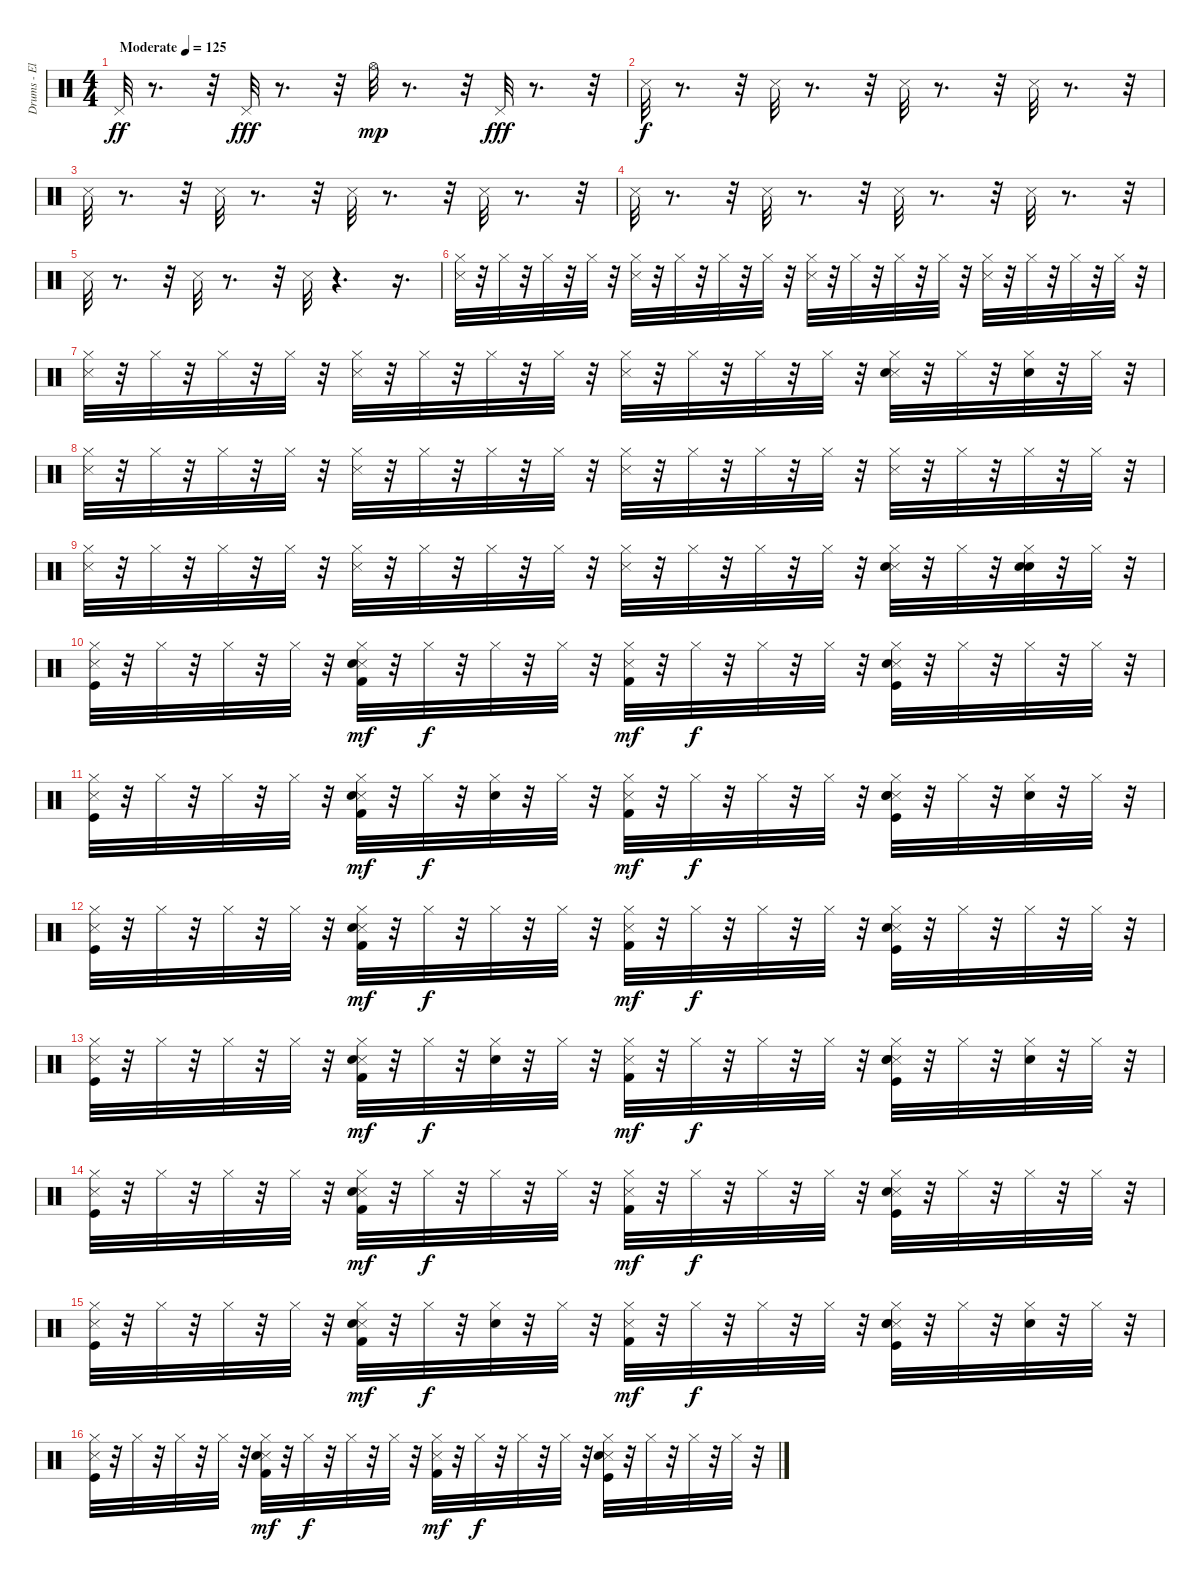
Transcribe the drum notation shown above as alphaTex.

\track ("Drums - El" "Drums - El") {instrument percussion}
\staff {score}
\articulation defaults
\ts (4 4)
\tempo (125 "Moderate")
\clef neutral
\ks c "Pedal Hi-Hat (hit)".32{dy ff}
r.8{d} r.32 "Pedal Hi-Hat (hit)".32{dy fff} r.8{d} r.32 "Hi-Hat (open)".32{dy mp} r.8{d} r.32 "Pedal Hi-Hat (hit)".32{dy fff} r.8{d} r.32 |
"Snare (side stick) 3".32{dy f} r.8{d} r.32 "Snare (side stick) 3".32 r.8{d} r.32 "Snare (side stick) 3".32 r.8{d} r.32 "Snare (side stick) 3".32 r.8{d} r.32 |
"Snare (side stick) 3".32 r.8{d} r.32 "Snare (side stick) 3".32 r.8{d} r.32 "Snare (side stick) 3".32 r.8{d} r.32 "Snare (side stick) 3".32 r.8{d} r.32 |
"Snare (side stick) 3".32 r.8{d} r.32 "Snare (side stick) 3".32 r.8{d} r.32 "Snare (side stick) 3".32 r.8{d} r.32 "Snare (side stick) 3".32 r.8{d} r.32 |
"Snare (side stick) 3".32 r.8{d} r.32 "Snare (side stick) 3".32 r.8{d} r.32 "Snare (side stick) 3".32 r.4{d} r.16{d} |
("Snare (side stick) 3" "Hi-Hat (closed)").32 r.32 "Hi-Hat (closed)".32 r.32 "Hi-Hat (closed)".32 r.32 "Hi-Hat (closed)".32 r.32 ("Snare (side stick) 3" "Hi-Hat (closed)").32 r.32 "Hi-Hat (closed)".32 r.32 "Hi-Hat (closed)".32 r.32 "Hi-Hat (closed)".32 r.32 ("Snare (side stick) 3" "Hi-Hat (closed)").32 r.32 "Hi-Hat (closed)".32 r.32 "Hi-Hat (closed)".32 r.32 "Hi-Hat (closed)".32 r.32 ("Snare (side stick) 3" "Hi-Hat (closed)").32 r.32 "Hi-Hat (closed)".32 r.32 "Hi-Hat (closed)".32 r.32 "Hi-Hat (closed)".32 r.32 |
("Snare (side stick) 3" "Hi-Hat (closed)").32 r.32 "Hi-Hat (closed)".32 r.32 "Hi-Hat (closed)".32 r.32 "Hi-Hat (closed)".32 r.32 ("Snare (side stick) 3" "Hi-Hat (closed)").32 r.32 "Hi-Hat (closed)".32 r.32 "Hi-Hat (closed)".32 r.32 "Hi-Hat (closed)".32 r.32 ("Snare (side stick) 3" "Hi-Hat (closed)").32 r.32 "Hi-Hat (closed)".32 r.32 "Hi-Hat (closed)".32 r.32 "Hi-Hat (closed)".32 r.32 ("Snare (side stick) 3" "Hand Clap (hit)" "Hi-Hat (closed)").32 r.32 "Hi-Hat (closed)".32 r.32 ("Hand Clap (hit)" "Hi-Hat (closed)").32 r.32 "Hi-Hat (closed)".32 r.32 |
("Snare (side stick) 3" "Hi-Hat (closed)").32 r.32 "Hi-Hat (closed)".32 r.32 "Hi-Hat (closed)".32 r.32 "Hi-Hat (closed)".32 r.32 ("Snare (side stick) 3" "Hi-Hat (closed)").32 r.32 "Hi-Hat (closed)".32 r.32 "Hi-Hat (closed)".32 r.32 "Hi-Hat (closed)".32 r.32 ("Snare (side stick) 3" "Hi-Hat (closed)").32 r.32 "Hi-Hat (closed)".32 r.32 "Hi-Hat (closed)".32 r.32 "Hi-Hat (closed)".32 r.32 ("Snare (side stick) 3" "Hi-Hat (closed)").32 r.32 "Hi-Hat (closed)".32 r.32 "Hi-Hat (closed)".32 r.32 "Hi-Hat (closed)".32 r.32 |
("Snare (side stick) 3" "Hi-Hat (closed)").32 r.32 "Hi-Hat (closed)".32 r.32 "Hi-Hat (closed)".32 r.32 "Hi-Hat (closed)".32 r.32 ("Snare (side stick) 3" "Hi-Hat (closed)").32 r.32 "Hi-Hat (closed)".32 r.32 "Hi-Hat (closed)".32 r.32 "Hi-Hat (closed)".32 r.32 ("Snare (side stick) 3" "Hi-Hat (closed)").32 r.32 "Hi-Hat (closed)".32 r.32 "Hi-Hat (closed)".32 r.32 "Hi-Hat (closed)".32 r.32 ("Snare (side stick) 3" "Hand Clap (hit)" "Hi-Hat (closed)").32 r.32 "Hi-Hat (closed)".32 r.32 ("Snare (hit) 2" "Hand Clap (hit)" "Hi-Hat (closed)").32 r.32 "Hi-Hat (closed)".32 r.32 |
("Kick (hit)" "Snare (side stick) 3" "Hi-Hat (closed)").32 r.32 "Hi-Hat (closed)".32 r.32 "Hi-Hat (closed)".32 r.32 "Hi-Hat (closed)".32 r.32 ("Kick (hit) 2" "Snare (side stick) 3" "Electric Snare (hit)" "Hi-Hat (closed)").32{dy mf} r.32 "Hi-Hat (closed)".32{dy f} r.32 "Hi-Hat (closed)".32 r.32 "Hi-Hat (closed)".32 r.32 ("Kick (hit) 2" "Snare (side stick) 3" "Hi-Hat (closed)").32{dy mf} r.32 "Hi-Hat (closed)".32{dy f} r.32 "Hi-Hat (closed)".32 r.32 "Hi-Hat (closed)".32 r.32 ("Kick (hit)" "Snare (side stick) 3" "Electric Snare (hit)" "Hi-Hat (closed)").32 r.32 "Hi-Hat (closed)".32 r.32 "Hi-Hat (closed)".32 r.32 "Hi-Hat (closed)".32 r.32 |
("Kick (hit)" "Snare (side stick) 3" "Hi-Hat (closed)").32 r.32 "Hi-Hat (closed)".32 r.32 "Hi-Hat (closed)".32 r.32 "Hi-Hat (closed)".32 r.32 ("Kick (hit) 2" "Snare (side stick) 3" "Electric Snare (hit)" "Hi-Hat (closed)").32{dy mf} r.32 "Hi-Hat (closed)".32{dy f} r.32 ("Snare (hit) 2" "Hi-Hat (closed)").32 r.32 "Hi-Hat (closed)".32 r.32 ("Kick (hit) 2" "Snare (side stick) 3" "Hi-Hat (closed)").32{dy mf} r.32 "Hi-Hat (closed)".32{dy f} r.32 "Hi-Hat (closed)".32 r.32 "Hi-Hat (closed)".32 r.32 ("Kick (hit)" "Snare (side stick) 3" "Electric Snare (hit)" "Hand Clap (hit)" "Hi-Hat (closed)").32 r.32 "Hi-Hat (closed)".32 r.32 ("Hand Clap (hit)" "Hi-Hat (closed)").32 r.32 "Hi-Hat (closed)".32 r.32 |
("Kick (hit)" "Snare (side stick) 3" "Hi-Hat (closed)").32 r.32 "Hi-Hat (closed)".32 r.32 "Hi-Hat (closed)".32 r.32 "Hi-Hat (closed)".32 r.32 ("Kick (hit) 2" "Snare (side stick) 3" "Electric Snare (hit)" "Hi-Hat (closed)").32{dy mf} r.32 "Hi-Hat (closed)".32{dy f} r.32 "Hi-Hat (closed)".32 r.32 "Hi-Hat (closed)".32 r.32 ("Kick (hit) 2" "Snare (side stick) 3" "Hi-Hat (closed)").32{dy mf} r.32 "Hi-Hat (closed)".32{dy f} r.32 "Hi-Hat (closed)".32 r.32 "Hi-Hat (closed)".32 r.32 ("Kick (hit)" "Snare (side stick) 3" "Electric Snare (hit)" "Hi-Hat (closed)").32 r.32 "Hi-Hat (closed)".32 r.32 "Hi-Hat (closed)".32 r.32 "Hi-Hat (closed)".32 r.32 |
("Kick (hit)" "Snare (side stick) 3" "Hi-Hat (closed)").32 r.32 "Hi-Hat (closed)".32 r.32 "Hi-Hat (closed)".32 r.32 "Hi-Hat (closed)".32 r.32 ("Kick (hit) 2" "Snare (side stick) 3" "Electric Snare (hit)" "Hi-Hat (closed)").32{dy mf} r.32 "Hi-Hat (closed)".32{dy f} r.32 ("Snare (hit) 2" "Hi-Hat (closed)").32 r.32 "Hi-Hat (closed)".32 r.32 ("Kick (hit) 2" "Snare (side stick) 3" "Hi-Hat (closed)").32{dy mf} r.32 "Hi-Hat (closed)".32{dy f} r.32 "Hi-Hat (closed)".32 r.32 "Hi-Hat (closed)".32 r.32 ("Kick (hit)" "Snare (side stick) 3" "Electric Snare (hit)" "Hand Clap (hit)" "Hi-Hat (closed)").32 r.32 "Hi-Hat (closed)".32 r.32 ("Hand Clap (hit)" "Hi-Hat (closed)").32 r.32 "Hi-Hat (closed)".32 r.32 |
("Kick (hit)" "Snare (side stick) 3" "Hi-Hat (closed)").32 r.32 "Hi-Hat (closed)".32 r.32 "Hi-Hat (closed)".32 r.32 "Hi-Hat (closed)".32 r.32 ("Kick (hit) 2" "Snare (side stick) 3" "Electric Snare (hit)" "Hi-Hat (closed)").32{dy mf} r.32 "Hi-Hat (closed)".32{dy f} r.32 "Hi-Hat (closed)".32 r.32 "Hi-Hat (closed)".32 r.32 ("Kick (hit) 2" "Snare (side stick) 3" "Hi-Hat (closed)").32{dy mf} r.32 "Hi-Hat (closed)".32{dy f} r.32 "Hi-Hat (closed)".32 r.32 "Hi-Hat (closed)".32 r.32 ("Kick (hit)" "Snare (side stick) 3" "Electric Snare (hit)" "Hi-Hat (closed)").32 r.32 "Hi-Hat (closed)".32 r.32 "Hi-Hat (closed)".32 r.32 "Hi-Hat (closed)".32 r.32 |
("Kick (hit)" "Snare (side stick) 3" "Hi-Hat (closed)").32 r.32 "Hi-Hat (closed)".32 r.32 "Hi-Hat (closed)".32 r.32 "Hi-Hat (closed)".32 r.32 ("Kick (hit) 2" "Snare (side stick) 3" "Electric Snare (hit)" "Hi-Hat (closed)").32{dy mf} r.32 "Hi-Hat (closed)".32{dy f} r.32 ("Snare (hit) 2" "Hi-Hat (closed)").32 r.32 "Hi-Hat (closed)".32 r.32 ("Kick (hit) 2" "Snare (side stick) 3" "Hi-Hat (closed)").32{dy mf} r.32 "Hi-Hat (closed)".32{dy f} r.32 "Hi-Hat (closed)".32 r.32 "Hi-Hat (closed)".32 r.32 ("Kick (hit)" "Snare (side stick) 3" "Electric Snare (hit)" "Hand Clap (hit)" "Hi-Hat (closed)").32 r.32 "Hi-Hat (closed)".32 r.32 ("Hand Clap (hit)" "Hi-Hat (closed)").32 r.32 "Hi-Hat (closed)".32 r.32 |
("Kick (hit)" "Snare (side stick) 3" "Hi-Hat (closed)").32 r.32 "Hi-Hat (closed)".32 r.32 "Hi-Hat (closed)".32 r.32 "Hi-Hat (closed)".32 r.32 ("Kick (hit) 2" "Snare (side stick) 3" "Electric Snare (hit)" "Hi-Hat (closed)").32{dy mf} r.32 "Hi-Hat (closed)".32{dy f} r.32 "Hi-Hat (closed)".32 r.32 "Hi-Hat (closed)".32 r.32 ("Kick (hit) 2" "Snare (side stick) 3" "Hi-Hat (closed)").32{dy mf} r.32 "Hi-Hat (closed)".32{dy f} r.32 "Hi-Hat (closed)".32 r.32 "Hi-Hat (closed)".32 r.32 ("Kick (hit)" "Snare (side stick) 3" "Electric Snare (hit)" "Hi-Hat (closed)").32 r.32 "Hi-Hat (closed)".32 r.32 "Hi-Hat (closed)".32 r.32 "Hi-Hat (closed)".32 r.32
